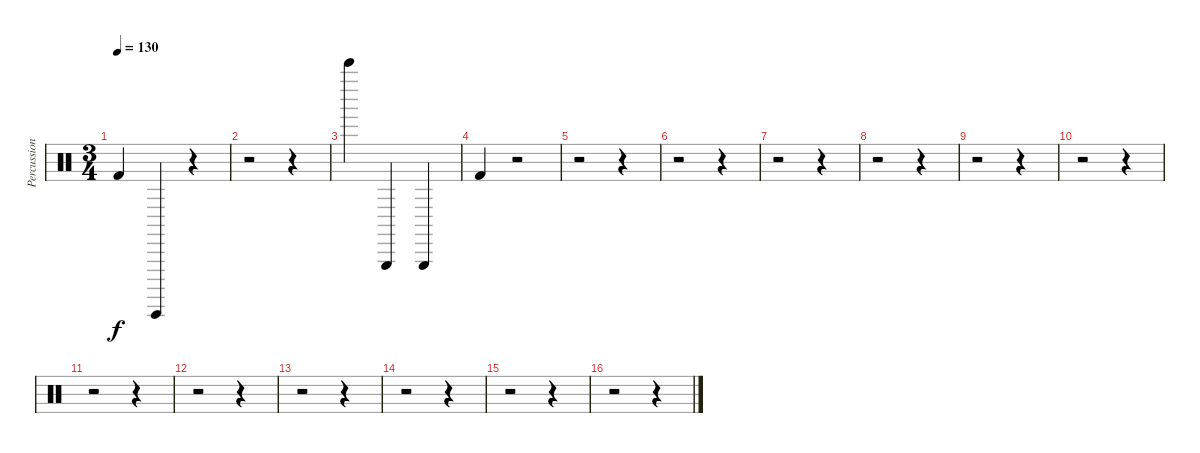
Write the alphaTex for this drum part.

\track ("Percussion" "Percussion") {instrument percussion}
\staff {score}
\articulation defaults
\ts (3 4)
\tempo 130
\clef neutral
\ks c "Kick (hit) 2".4{dy f} "Guiro (hit)".4
r.4 |
r.2 r.4 |
"Bell Tree (hit)".4 "Triangle (hit)".4 "Triangle (hit)".4 |
"Kick (hit) 2".4 r.2 |
r.2 r.4 |
r.2 r.4 |
r.2 r.4 |
r.2 r.4 |
r.2 r.4 |
r.2 r.4 |
r.2 r.4 |
r.2 r.4 |
r.2 r.4 |
r.2 r.4 |
r.2 r.4 |
r.2 r.4
